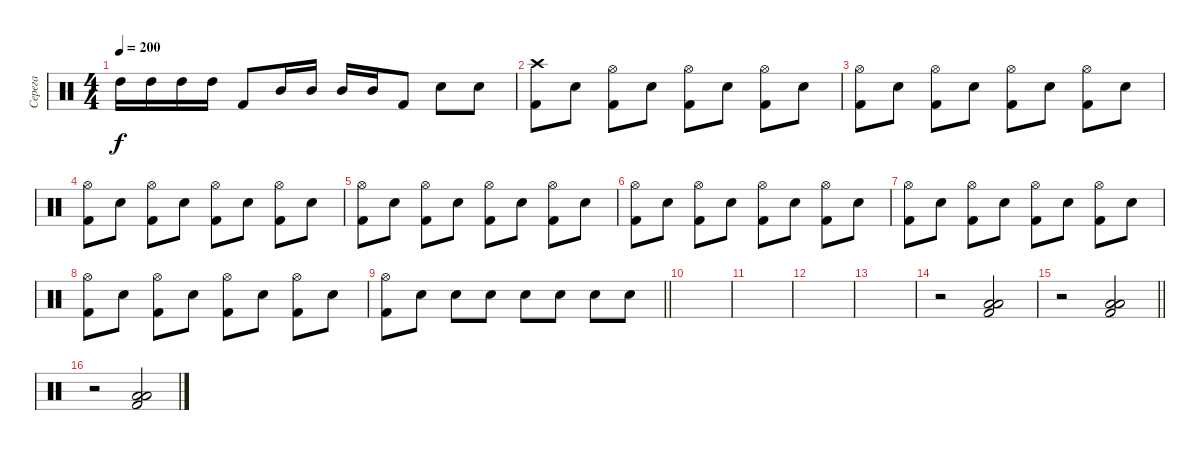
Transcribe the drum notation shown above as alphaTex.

\track ("Серега" "Серега") {instrument percussion}
\staff {score}
\articulation defaults
\ts (4 4)
\tempo 200
\clef neutral
\ks c "High Tom (hit)".16{dy f} "High Tom (hit)".16 "High Tom (hit)".16 "High Tom (hit)".16 "Kick (hit) 2".8 "Mid Tom (hit)".16 "Mid Tom (hit)".16 "Mid Tom (hit)".16 "Mid Tom (hit)".16 "Kick (hit) 2".8 "Electric Snare (hit)".8 "Electric Snare (hit)".8
|
("Crash high (hit)" "Kick (hit) 2").8 "Electric Snare (hit)".8 ("Hi-Hat (open)" "Kick (hit) 2").8 "Electric Snare (hit)".8 ("Hi-Hat (open)" "Kick (hit) 2").8 "Electric Snare (hit)".8 ("Hi-Hat (open)" "Kick (hit) 2").8 "Electric Snare (hit)".8 |
("Hi-Hat (open)" "Kick (hit) 2").8 "Electric Snare (hit)".8 ("Hi-Hat (open)" "Kick (hit) 2").8 "Electric Snare (hit)".8 ("Hi-Hat (open)" "Kick (hit) 2").8 "Electric Snare (hit)".8 ("Hi-Hat (open)" "Kick (hit) 2").8 "Electric Snare (hit)".8 |
("Hi-Hat (open)" "Kick (hit) 2").8 "Electric Snare (hit)".8 ("Hi-Hat (open)" "Kick (hit) 2").8 "Electric Snare (hit)".8 ("Hi-Hat (open)" "Kick (hit) 2").8 "Electric Snare (hit)".8 ("Hi-Hat (open)" "Kick (hit) 2").8 "Electric Snare (hit)".8 |
("Hi-Hat (open)" "Kick (hit) 2").8 "Electric Snare (hit)".8 ("Hi-Hat (open)" "Kick (hit) 2").8 "Electric Snare (hit)".8 ("Hi-Hat (open)" "Kick (hit) 2").8 "Electric Snare (hit)".8 ("Hi-Hat (open)" "Kick (hit) 2").8 "Electric Snare (hit)".8 |
("Hi-Hat (open)" "Kick (hit) 2").8 "Electric Snare (hit)".8 ("Hi-Hat (open)" "Kick (hit) 2").8 "Electric Snare (hit)".8 ("Hi-Hat (open)" "Kick (hit) 2").8 "Electric Snare (hit)".8 ("Hi-Hat (open)" "Kick (hit) 2").8 "Electric Snare (hit)".8 |
("Hi-Hat (open)" "Kick (hit) 2").8 "Electric Snare (hit)".8 ("Hi-Hat (open)" "Kick (hit) 2").8 "Electric Snare (hit)".8 ("Hi-Hat (open)" "Kick (hit) 2").8 "Electric Snare (hit)".8 ("Hi-Hat (open)" "Kick (hit) 2").8 "Electric Snare (hit)".8 |
("Hi-Hat (open)" "Kick (hit) 2").8 "Electric Snare (hit)".8 ("Hi-Hat (open)" "Kick (hit) 2").8 "Electric Snare (hit)".8 ("Hi-Hat (open)" "Kick (hit) 2").8 "Electric Snare (hit)".8 ("Hi-Hat (open)" "Kick (hit) 2").8 "Electric Snare (hit)".8 |
\barLineRight lightlight
("Hi-Hat (open)" "Kick (hit) 2").8 "Electric Snare (hit)".8 "Electric Snare (hit)".8 "Electric Snare (hit)".8 "Electric Snare (hit)".8 "Electric Snare (hit)".8 "Electric Snare (hit)".8 "Electric Snare (hit)".8 |
|
|
|
|
r.2 ("Low Tom (hit)" "Low Floor Tom (hit)" "Kick (hit) 2").2 |
\barLineRight lightlight
r.2 ("Low Tom (hit)" "Low Floor Tom (hit)" "Kick (hit) 2").2 |
r.2 ("Low Tom (hit)" "Low Floor Tom (hit)" "Kick (hit) 2").2
